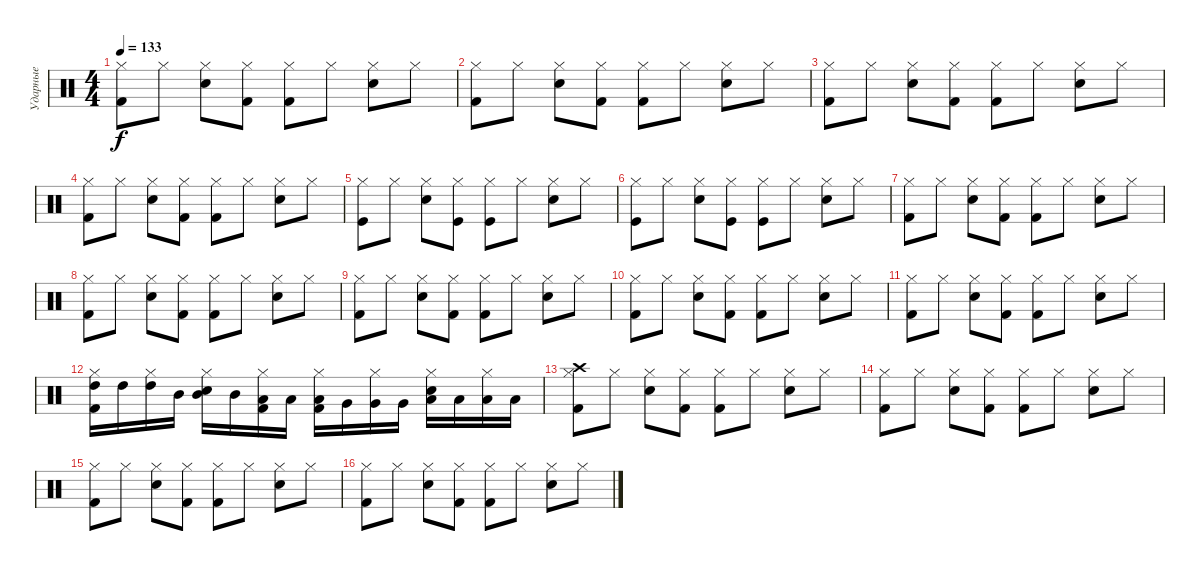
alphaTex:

\track ("Ударные" "Ударные") {instrument percussion}
\staff {score}
\articulation defaults
\ts (4 4)
\tempo 133
\clef neutral
\ks c
("Kick (hit) 2" "Hi-Hat (closed)").8{dy f} "Hi-Hat (closed)".8 ("Electric Snare (hit)" "Hi-Hat (closed)").8 ("Kick (hit) 2" "Hi-Hat (closed)").8 ("Kick (hit) 2" "Hi-Hat (closed)").8 "Hi-Hat (closed)".8 ("Electric Snare (hit)" "Hi-Hat (closed)").8 "Hi-Hat (closed)".8 |
("Kick (hit) 2" "Hi-Hat (closed)").8 "Hi-Hat (closed)".8 ("Electric Snare (hit)" "Hi-Hat (closed)").8 ("Kick (hit) 2" "Hi-Hat (closed)").8 ("Kick (hit) 2" "Hi-Hat (closed)").8 "Hi-Hat (closed)".8 ("Electric Snare (hit)" "Hi-Hat (closed)").8 "Hi-Hat (closed)".8 |
("Kick (hit) 2" "Hi-Hat (closed)").8 "Hi-Hat (closed)".8 ("Electric Snare (hit)" "Hi-Hat (closed)").8 ("Kick (hit) 2" "Hi-Hat (closed)").8 ("Kick (hit) 2" "Hi-Hat (closed)").8 "Hi-Hat (closed)".8 ("Electric Snare (hit)" "Hi-Hat (closed)").8 "Hi-Hat (closed)".8 |
("Kick (hit) 2" "Hi-Hat (closed)").8 "Hi-Hat (closed)".8 ("Electric Snare (hit)" "Hi-Hat (closed)").8 ("Kick (hit) 2" "Hi-Hat (closed)").8 ("Kick (hit) 2" "Hi-Hat (closed)").8 "Hi-Hat (closed)".8 ("Electric Snare (hit)" "Hi-Hat (closed)").8 "Hi-Hat (closed)".8 |
("Kick (hit)" "Hi-Hat (closed)").8 "Hi-Hat (closed)".8 ("Snare (hit) 2" "Hi-Hat (closed)").8 ("Kick (hit)" "Hi-Hat (closed)").8 ("Kick (hit)" "Hi-Hat (closed)").8 "Hi-Hat (closed)".8 ("Snare (hit) 2" "Hi-Hat (closed)").8 "Hi-Hat (closed)".8 |
("Kick (hit)" "Hi-Hat (closed)").8 "Hi-Hat (closed)".8 ("Snare (hit) 2" "Hi-Hat (closed)").8 ("Kick (hit)" "Hi-Hat (closed)").8 ("Kick (hit)" "Hi-Hat (closed)").8 "Hi-Hat (closed)".8 ("Snare (hit) 2" "Hi-Hat (closed)").8 "Hi-Hat (closed)".8 |
("Kick (hit) 2" "Hi-Hat (closed)").8 "Hi-Hat (closed)".8 ("Electric Snare (hit)" "Hi-Hat (closed)").8 ("Kick (hit) 2" "Hi-Hat (closed)").8 ("Kick (hit) 2" "Hi-Hat (closed)").8 "Hi-Hat (closed)".8 ("Electric Snare (hit)" "Hi-Hat (closed)").8 "Hi-Hat (closed)".8 |
("Kick (hit) 2" "Hi-Hat (closed)").8 "Hi-Hat (closed)".8 ("Electric Snare (hit)" "Hi-Hat (closed)").8 ("Kick (hit) 2" "Hi-Hat (closed)").8 ("Kick (hit) 2" "Hi-Hat (closed)").8 "Hi-Hat (closed)".8 ("Electric Snare (hit)" "Hi-Hat (closed)").8 "Hi-Hat (closed)".8 |
("Kick (hit) 2" "Hi-Hat (closed)").8 "Hi-Hat (closed)".8 ("Electric Snare (hit)" "Hi-Hat (closed)").8 ("Kick (hit) 2" "Hi-Hat (closed)").8 ("Kick (hit) 2" "Hi-Hat (closed)").8 "Hi-Hat (closed)".8 ("Electric Snare (hit)" "Hi-Hat (closed)").8 "Hi-Hat (closed)".8 |
("Kick (hit) 2" "Hi-Hat (closed)").8 "Hi-Hat (closed)".8 ("Electric Snare (hit)" "Hi-Hat (closed)").8 ("Kick (hit) 2" "Hi-Hat (closed)").8 ("Kick (hit) 2" "Hi-Hat (closed)").8 "Hi-Hat (closed)".8 ("Electric Snare (hit)" "Hi-Hat (closed)").8 "Hi-Hat (closed)".8 |
("Kick (hit) 2" "Hi-Hat (closed)").8 "Hi-Hat (closed)".8 ("Electric Snare (hit)" "Hi-Hat (closed)").8 ("Kick (hit) 2" "Hi-Hat (closed)").8 ("Kick (hit) 2" "Hi-Hat (closed)").8 "Hi-Hat (closed)".8 ("Electric Snare (hit)" "Hi-Hat (closed)").8 "Hi-Hat (closed)".8 |
("High Tom (hit)" "Kick (hit) 2" "Hi-Hat (closed)").16 "High Tom (hit)".16 ("High Tom (hit)" "Hi-Hat (closed)").16 "Mid Tom (hit)".16 ("Mid Tom (hit)" "Electric Snare (hit)" "Hi-Hat (closed)").16 "Mid Tom (hit)".16 ("Kick (hit) 2" "Low Tom (hit)" "Hi-Hat (closed)").16 "Low Tom (hit)".16 ("Kick (hit) 2" "Low Tom (hit)" "Hi-Hat (closed)").16 "Very Low Tom (hit)".16 ("Very Low Tom (hit)" "Hi-Hat (closed)").16 "Very Low Tom (hit)".16 ("Electric Snare (hit)" "Low Floor Tom (hit)" "Hi-Hat (closed)").16 "Low Floor Tom (hit)".16 ("Low Floor Tom (hit)" "Hi-Hat (closed)").16 "Low Floor Tom (hit)".16 |
("Kick (hit) 2" "Crash high (hit)" "Hi-Hat (closed)").8 "Hi-Hat (closed)".8 ("Electric Snare (hit)" "Hi-Hat (closed)").8 ("Kick (hit) 2" "Hi-Hat (closed)").8 ("Kick (hit) 2" "Hi-Hat (closed)").8 "Hi-Hat (closed)".8 ("Electric Snare (hit)" "Hi-Hat (closed)").8 "Hi-Hat (closed)".8 |
("Kick (hit) 2" "Hi-Hat (closed)").8 "Hi-Hat (closed)".8 ("Electric Snare (hit)" "Hi-Hat (closed)").8 ("Kick (hit) 2" "Hi-Hat (closed)").8 ("Kick (hit) 2" "Hi-Hat (closed)").8 "Hi-Hat (closed)".8 ("Electric Snare (hit)" "Hi-Hat (closed)").8 "Hi-Hat (closed)".8 |
("Kick (hit) 2" "Hi-Hat (closed)").8 "Hi-Hat (closed)".8 ("Electric Snare (hit)" "Hi-Hat (closed)").8 ("Kick (hit) 2" "Hi-Hat (closed)").8 ("Kick (hit) 2" "Hi-Hat (closed)").8 "Hi-Hat (closed)".8 ("Electric Snare (hit)" "Hi-Hat (closed)").8 "Hi-Hat (closed)".8 |
("Kick (hit) 2" "Hi-Hat (closed)").8 "Hi-Hat (closed)".8 ("Electric Snare (hit)" "Hi-Hat (closed)").8 ("Kick (hit) 2" "Hi-Hat (closed)").8 ("Kick (hit) 2" "Hi-Hat (closed)").8 "Hi-Hat (closed)".8 ("Electric Snare (hit)" "Hi-Hat (closed)").8 "Hi-Hat (closed)".8
